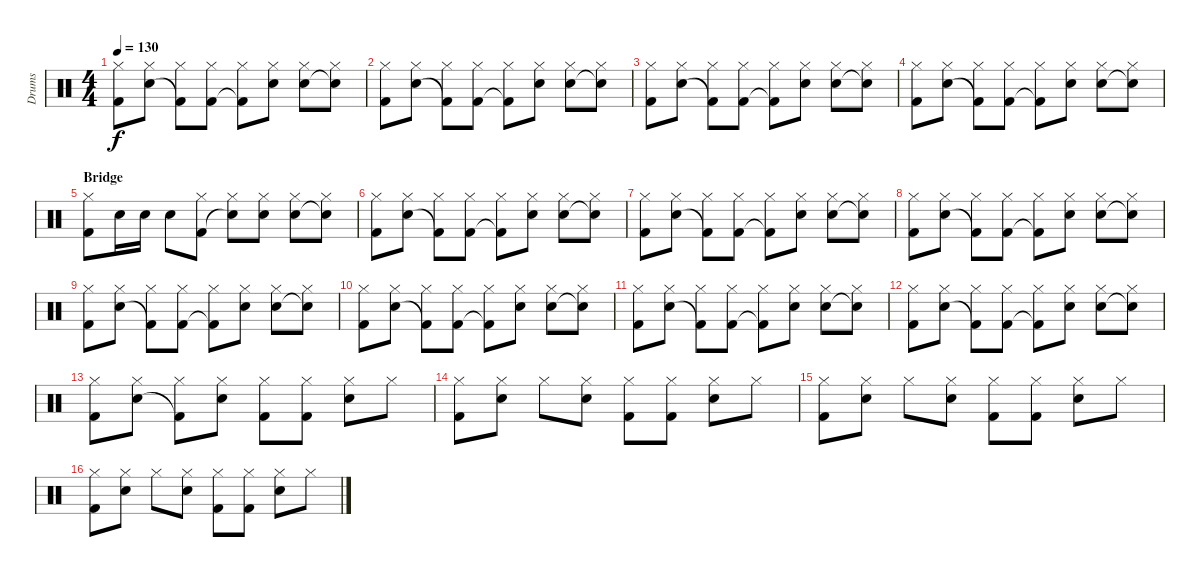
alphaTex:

\track ("Drums" "Drums") {instrument percussion}
\staff {score}
\articulation defaults
\ts (4 4)
\tempo 130
\clef neutral
\ks c
("Kick (hit) 2" "Hi-Hat (closed)").8{dy f} ("Snare (hit) 2" "Hi-Hat (closed)").8 ("Kick (hit) 2"{t} "Hi-Hat (closed)").8 ("Kick (hit) 2" "Hi-Hat (closed)").8 ("Kick (hit) 2"{t} "Hi-Hat (closed)").8 ("Snare (hit) 2" "Hi-Hat (closed)").8 ("Snare (hit) 2" "Hi-Hat (closed)").8 ("Snare (hit) 2"{t} "Hi-Hat (closed)").8 |
("Kick (hit) 2" "Hi-Hat (closed)").8 ("Snare (hit) 2" "Hi-Hat (closed)").8 ("Kick (hit) 2"{t} "Hi-Hat (closed)").8 ("Kick (hit) 2" "Hi-Hat (closed)").8 ("Kick (hit) 2"{t} "Hi-Hat (closed)").8 ("Snare (hit) 2" "Hi-Hat (closed)").8 ("Snare (hit) 2" "Hi-Hat (closed)").8 ("Snare (hit) 2"{t} "Hi-Hat (closed)").8 |
("Kick (hit) 2" "Hi-Hat (closed)").8 ("Snare (hit) 2" "Hi-Hat (closed)").8 ("Kick (hit) 2"{t} "Hi-Hat (closed)").8 ("Kick (hit) 2" "Hi-Hat (closed)").8 ("Kick (hit) 2"{t} "Hi-Hat (closed)").8 ("Snare (hit) 2" "Hi-Hat (closed)").8 ("Snare (hit) 2" "Hi-Hat (closed)").8 ("Snare (hit) 2"{t} "Hi-Hat (closed)").8 |
("Kick (hit) 2" "Hi-Hat (closed)").8 ("Snare (hit) 2" "Hi-Hat (closed)").8 ("Kick (hit) 2"{t} "Hi-Hat (closed)").8 ("Kick (hit) 2" "Hi-Hat (closed)").8 ("Kick (hit) 2"{t} "Hi-Hat (closed)").8 ("Snare (hit) 2" "Hi-Hat (closed)").8 ("Snare (hit) 2" "Hi-Hat (closed)").8 ("Snare (hit) 2"{t} "Hi-Hat (closed)").8 |
\section ("" "Bridge")
("Kick (hit) 2" "Hi-Hat (closed)").8 "Snare (hit) 2".16 "Snare (hit) 2".16 "Snare (hit) 2".8 ("Kick (hit) 2" "Hi-Hat (closed)").8 ("Snare (hit)"{t} "Hi-Hat (closed)").8 ("Snare (hit) 2" "Hi-Hat (closed)").8 ("Snare (hit) 2" "Hi-Hat (closed)").8 ("Snare (hit)"{t} "Hi-Hat (closed)").8 |
("Kick (hit) 2" "Hi-Hat (closed)").8 ("Snare (hit) 2" "Hi-Hat (closed)").8 ("Kick (hit) 2"{t} "Hi-Hat (closed)").8 ("Kick (hit) 2" "Hi-Hat (closed)").8 ("Kick (hit) 2"{t} "Hi-Hat (closed)").8 ("Snare (hit) 2" "Hi-Hat (closed)").8 ("Snare (hit) 2" "Hi-Hat (closed)").8 ("Snare (hit) 2"{t} "Hi-Hat (closed)").8 |
("Kick (hit) 2" "Hi-Hat (closed)").8 ("Snare (hit) 2" "Hi-Hat (closed)").8 ("Kick (hit) 2"{t} "Hi-Hat (closed)").8 ("Kick (hit) 2" "Hi-Hat (closed)").8 ("Kick (hit) 2"{t} "Hi-Hat (closed)").8 ("Snare (hit) 2" "Hi-Hat (closed)").8 ("Snare (hit) 2" "Hi-Hat (closed)").8 ("Snare (hit) 2"{t} "Hi-Hat (closed)").8 |
("Kick (hit) 2" "Hi-Hat (closed)").8 ("Snare (hit) 2" "Hi-Hat (closed)").8 ("Kick (hit) 2"{t} "Hi-Hat (closed)").8 ("Kick (hit) 2" "Hi-Hat (closed)").8 ("Kick (hit) 2"{t} "Hi-Hat (closed)").8 ("Snare (hit) 2" "Hi-Hat (closed)").8 ("Snare (hit) 2" "Hi-Hat (closed)").8 ("Snare (hit) 2"{t} "Hi-Hat (closed)").8 |
("Kick (hit) 2" "Hi-Hat (closed)").8 ("Snare (hit) 2" "Hi-Hat (closed)").8 ("Kick (hit) 2"{t} "Hi-Hat (closed)").8 ("Kick (hit) 2" "Hi-Hat (closed)").8 ("Kick (hit) 2"{t} "Hi-Hat (closed)").8 ("Snare (hit) 2" "Hi-Hat (closed)").8 ("Snare (hit) 2" "Hi-Hat (closed)").8 ("Snare (hit) 2"{t} "Hi-Hat (closed)").8 |
("Kick (hit) 2" "Hi-Hat (closed)").8 ("Snare (hit) 2" "Hi-Hat (closed)").8 ("Kick (hit) 2"{t} "Hi-Hat (closed)").8 ("Kick (hit) 2" "Hi-Hat (closed)").8 ("Kick (hit) 2"{t} "Hi-Hat (closed)").8 ("Snare (hit) 2" "Hi-Hat (closed)").8 ("Snare (hit) 2" "Hi-Hat (closed)").8 ("Snare (hit) 2"{t} "Hi-Hat (closed)").8 |
("Kick (hit) 2" "Hi-Hat (closed)").8 ("Snare (hit) 2" "Hi-Hat (closed)").8 ("Kick (hit) 2"{t} "Hi-Hat (closed)").8 ("Kick (hit) 2" "Hi-Hat (closed)").8 ("Kick (hit) 2"{t} "Hi-Hat (closed)").8 ("Snare (hit) 2" "Hi-Hat (closed)").8 ("Snare (hit) 2" "Hi-Hat (closed)").8 ("Snare (hit) 2"{t} "Hi-Hat (closed)").8 |
("Kick (hit) 2" "Hi-Hat (closed)").8 ("Snare (hit) 2" "Hi-Hat (closed)").8 ("Kick (hit) 2"{t} "Hi-Hat (closed)").8 ("Kick (hit) 2" "Hi-Hat (closed)").8 ("Kick (hit) 2"{t} "Hi-Hat (closed)").8 ("Snare (hit) 2" "Hi-Hat (closed)").8 ("Snare (hit) 2" "Hi-Hat (closed)").8 ("Snare (hit) 2"{t} "Hi-Hat (closed)").8 |
("Kick (hit) 2" "Hi-Hat (closed)").8 ("Snare (hit) 2" "Hi-Hat (closed)").8 ("Kick (hit) 2"{t} "Hi-Hat (closed)").8 ("Hi-Hat (closed)" "Snare (hit) 2").8 ("Kick (hit) 2" "Hi-Hat (closed)").8 ("Kick (hit) 2" "Hi-Hat (closed)").8 ("Hi-Hat (closed)" "Snare (hit) 2").8 "Hi-Hat (closed)".8 |
("Kick (hit) 2" "Hi-Hat (closed)").8 ("Hi-Hat (closed)" "Snare (hit) 2").8 "Hi-Hat (closed)".8 ("Hi-Hat (closed)" "Snare (hit) 2").8 ("Kick (hit) 2" "Hi-Hat (closed)").8 ("Kick (hit) 2" "Hi-Hat (closed)").8 ("Hi-Hat (closed)" "Snare (hit) 2").8 "Hi-Hat (closed)".8 |
("Kick (hit) 2" "Hi-Hat (closed)").8 ("Hi-Hat (closed)" "Snare (hit) 2").8 "Hi-Hat (closed)".8 ("Hi-Hat (closed)" "Snare (hit) 2").8 ("Kick (hit) 2" "Hi-Hat (closed)").8 ("Kick (hit) 2" "Hi-Hat (closed)").8 ("Hi-Hat (closed)" "Snare (hit) 2").8 "Hi-Hat (closed)".8 |
("Kick (hit) 2" "Hi-Hat (closed)").8 ("Hi-Hat (closed)" "Snare (hit) 2").8 "Hi-Hat (closed)".8 ("Hi-Hat (closed)" "Snare (hit) 2").8 ("Kick (hit) 2" "Hi-Hat (closed)").8 ("Kick (hit) 2" "Hi-Hat (closed)").8 ("Hi-Hat (closed)" "Snare (hit) 2").8 "Hi-Hat (closed)".8
